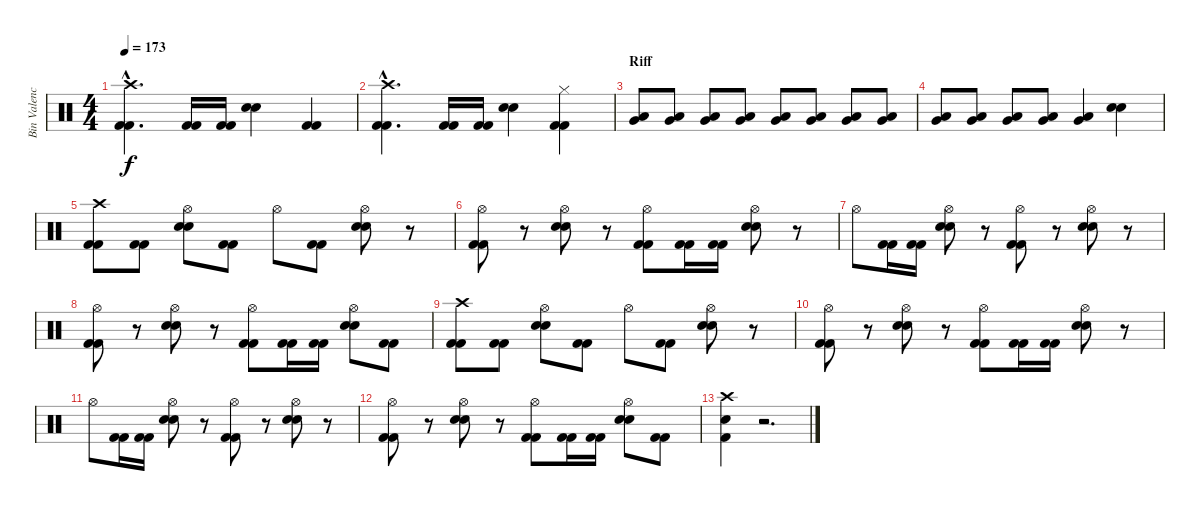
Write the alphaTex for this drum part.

\track ("Bin Valencia (Bateria)" "Bin Valenc") {instrument percussion}
\staff {score}
\articulation defaults
\ts (4 4)
\tempo 173
\clef neutral
\ks c
("Crash high (hit)"{hac} "Kick (hit) 2"{hac} "Kick (hit) 2"{hac}).4{d dy f} ("Kick (hit) 2" "Kick (hit) 2").16 ("Kick (hit) 2" "Kick (hit) 2").16 ("Snare (hit) 2" "Snare (hit) 2").4 ("Kick (hit) 2" "Kick (hit) 2").4 |
("Crash high (hit)"{hac} "Kick (hit) 2"{hac} "Kick (hit) 2"{hac}).4{d} ("Kick (hit) 2" "Kick (hit) 2").16 ("Kick (hit) 2" "Kick (hit) 2").16 ("Snare (hit) 2" "Snare (hit) 2").4 ("Hi-Hat (closed)" "Kick (hit) 2" "Kick (hit) 2").4 |
\section ("" "Riff")
("Very Low Tom (hit)" "Low Tom (hit)").8 ("Very Low Tom (hit)" "Low Tom (hit)").8 ("Very Low Tom (hit)" "Low Tom (hit)").8 ("Very Low Tom (hit)" "Low Tom (hit)").8 ("Very Low Tom (hit)" "Low Tom (hit)").8 ("Very Low Tom (hit)" "Low Tom (hit)").8 ("Very Low Tom (hit)" "Low Tom (hit)").8 ("Very Low Tom (hit)" "Low Tom (hit)").8 |
("Very Low Tom (hit)" "Low Tom (hit)").8 ("Very Low Tom (hit)" "Low Tom (hit)").8 ("Very Low Tom (hit)" "Low Tom (hit)").8 ("Very Low Tom (hit)" "Low Tom (hit)").8 ("Low Tom (hit)" "Very Low Tom (hit)").4 ("Snare (hit) 2" "Snare (hit) 2").4 |
("Crash high (hit)" "Kick (hit) 2" "Kick (hit) 2").8 ("Kick (hit) 2" "Kick (hit) 2").8 ("Hi-Hat (open)" "Snare (hit) 2" "Snare (hit) 2").8 ("Kick (hit) 2" "Kick (hit) 2").8 "Hi-Hat (open)".8 ("Kick (hit) 2" "Kick (hit) 2").8 ("Hi-Hat (open)" "Snare (hit) 2" "Snare (hit) 2").8 r.8 |
("Hi-Hat (open)" "Kick (hit) 2" "Kick (hit) 2").8 r.8 ("Hi-Hat (open)" "Snare (hit) 2" "Snare (hit) 2").8 r.8 ("Hi-Hat (open)" "Kick (hit) 2" "Kick (hit) 2").8 ("Kick (hit) 2" "Kick (hit) 2").16 ("Kick (hit) 2" "Kick (hit) 2").16 ("Hi-Hat (open)" "Snare (hit) 2" "Snare (hit) 2").8 r.8 |
"Hi-Hat (open)".8 ("Kick (hit) 2" "Kick (hit) 2").16 ("Kick (hit) 2" "Kick (hit) 2").16 ("Hi-Hat (open)" "Snare (hit) 2" "Snare (hit) 2").8 r.8 ("Hi-Hat (open)" "Kick (hit) 2" "Kick (hit) 2").8 r.8 ("Hi-Hat (open)" "Snare (hit) 2" "Snare (hit) 2").8 r.8 |
("Hi-Hat (open)" "Kick (hit) 2" "Kick (hit) 2").8 r.8 ("Hi-Hat (open)" "Snare (hit) 2" "Snare (hit) 2").8 r.8 ("Hi-Hat (open)" "Kick (hit) 2" "Kick (hit) 2").8 ("Kick (hit) 2" "Kick (hit) 2").16 ("Kick (hit) 2" "Kick (hit) 2").16 ("Hi-Hat (open)" "Snare (hit) 2" "Snare (hit) 2").8 ("Kick (hit) 2" "Kick (hit) 2").8 |
("Crash high (hit)" "Kick (hit) 2" "Kick (hit) 2").8 ("Kick (hit) 2" "Kick (hit) 2").8 ("Hi-Hat (open)" "Snare (hit) 2" "Snare (hit) 2").8 ("Kick (hit) 2" "Kick (hit) 2").8 "Hi-Hat (open)".8 ("Kick (hit) 2" "Kick (hit) 2").8 ("Hi-Hat (open)" "Snare (hit) 2" "Snare (hit) 2").8 r.8 |
("Hi-Hat (open)" "Kick (hit) 2" "Kick (hit) 2").8 r.8 ("Hi-Hat (open)" "Snare (hit) 2" "Snare (hit) 2").8 r.8 ("Hi-Hat (open)" "Kick (hit) 2" "Kick (hit) 2").8 ("Kick (hit) 2" "Kick (hit) 2").16 ("Kick (hit) 2" "Kick (hit) 2").16 ("Hi-Hat (open)" "Snare (hit) 2" "Snare (hit) 2").8 r.8 |
"Hi-Hat (open)".8 ("Kick (hit) 2" "Kick (hit) 2").16 ("Kick (hit) 2" "Kick (hit) 2").16 ("Hi-Hat (open)" "Snare (hit) 2" "Snare (hit) 2").8 r.8 ("Hi-Hat (open)" "Kick (hit) 2" "Kick (hit) 2").8 r.8 ("Hi-Hat (open)" "Snare (hit) 2" "Snare (hit) 2").8 r.8 |
("Hi-Hat (open)" "Kick (hit) 2" "Kick (hit) 2").8 r.8 ("Hi-Hat (open)" "Snare (hit) 2" "Snare (hit) 2").8 r.8 ("Hi-Hat (open)" "Kick (hit) 2" "Kick (hit) 2").8 ("Kick (hit) 2" "Kick (hit) 2").16 ("Kick (hit) 2" "Kick (hit) 2").16 ("Hi-Hat (open)" "Snare (hit) 2" "Snare (hit) 2").8 ("Kick (hit) 2" "Kick (hit) 2").8 |
("Crash high (hit)" "Snare (hit) 2" "Kick (hit) 2").4 r.2{d}
